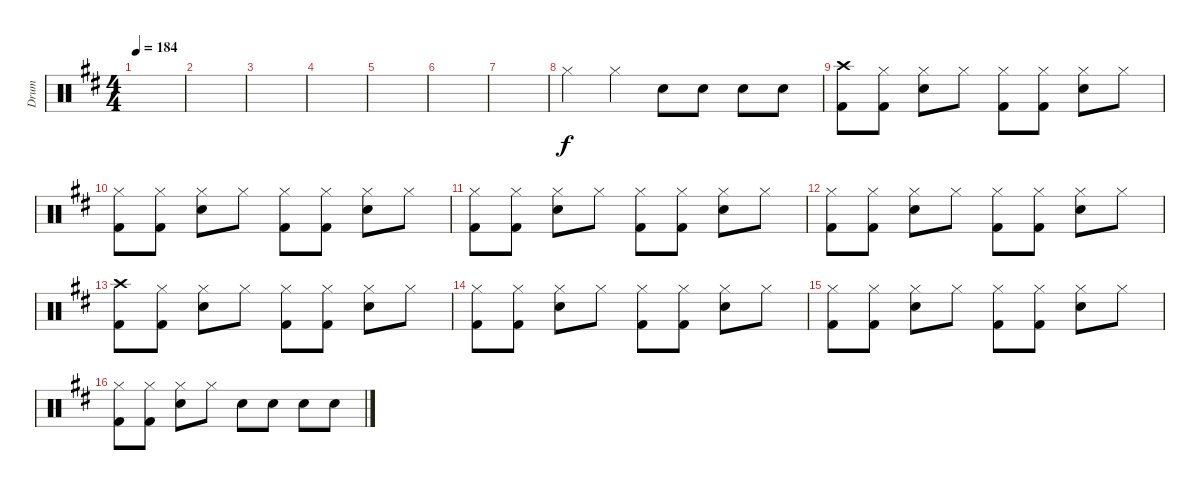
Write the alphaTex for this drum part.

\track ("Drum" "Drum") {instrument percussion}
\staff {score}
\articulation defaults
\ts (4 4)
\tempo 184
\clef neutral
\ks d
|
|
|
|
|
|
|
"Hi-Hat (closed)".4 "Hi-Hat (closed)".4 "Electric Snare (hit)".8 "Electric Snare (hit)".8 "Electric Snare (hit)".8 "Electric Snare (hit)".8 |
("Crash high (hit)" "Kick (hit) 2").8 ("Hi-Hat (closed)" "Kick (hit) 2").8 ("Hi-Hat (closed)" "Electric Snare (hit)").8 "Hi-Hat (closed)".8 ("Hi-Hat (closed)" "Kick (hit) 2").8 ("Hi-Hat (closed)" "Kick (hit) 2").8 ("Hi-Hat (closed)" "Electric Snare (hit)").8 "Hi-Hat (closed)".8 |
("Hi-Hat (closed)" "Kick (hit) 2").8 ("Hi-Hat (closed)" "Kick (hit) 2").8 ("Hi-Hat (closed)" "Electric Snare (hit)").8 "Hi-Hat (closed)".8 ("Hi-Hat (closed)" "Kick (hit) 2").8 ("Hi-Hat (closed)" "Kick (hit) 2").8 ("Hi-Hat (closed)" "Electric Snare (hit)").8 "Hi-Hat (closed)".8 |
("Hi-Hat (closed)" "Kick (hit) 2").8 ("Hi-Hat (closed)" "Kick (hit) 2").8 ("Hi-Hat (closed)" "Electric Snare (hit)").8 "Hi-Hat (closed)".8 ("Hi-Hat (closed)" "Kick (hit) 2").8 ("Hi-Hat (closed)" "Kick (hit) 2").8 ("Hi-Hat (closed)" "Electric Snare (hit)").8 "Hi-Hat (closed)".8 |
("Hi-Hat (closed)" "Kick (hit) 2").8 ("Hi-Hat (closed)" "Kick (hit) 2").8 ("Hi-Hat (closed)" "Electric Snare (hit)").8 "Hi-Hat (closed)".8 ("Hi-Hat (closed)" "Kick (hit) 2").8 ("Hi-Hat (closed)" "Kick (hit) 2").8 ("Hi-Hat (closed)" "Electric Snare (hit)").8 "Hi-Hat (closed)".8 |
("Crash high (hit)" "Kick (hit) 2").8 ("Hi-Hat (closed)" "Kick (hit) 2").8 ("Hi-Hat (closed)" "Electric Snare (hit)").8 "Hi-Hat (closed)".8 ("Hi-Hat (closed)" "Kick (hit) 2").8 ("Hi-Hat (closed)" "Kick (hit) 2").8 ("Hi-Hat (closed)" "Electric Snare (hit)").8 "Hi-Hat (closed)".8 |
("Hi-Hat (closed)" "Kick (hit) 2").8 ("Hi-Hat (closed)" "Kick (hit) 2").8 ("Hi-Hat (closed)" "Electric Snare (hit)").8 "Hi-Hat (closed)".8 ("Hi-Hat (closed)" "Kick (hit) 2").8 ("Hi-Hat (closed)" "Kick (hit) 2").8 ("Hi-Hat (closed)" "Electric Snare (hit)").8 "Hi-Hat (closed)".8 |
("Hi-Hat (closed)" "Kick (hit) 2").8 ("Hi-Hat (closed)" "Kick (hit) 2").8 ("Hi-Hat (closed)" "Electric Snare (hit)").8 "Hi-Hat (closed)".8 ("Hi-Hat (closed)" "Kick (hit) 2").8 ("Hi-Hat (closed)" "Kick (hit) 2").8 ("Hi-Hat (closed)" "Electric Snare (hit)").8 "Hi-Hat (closed)".8 |
("Hi-Hat (closed)" "Kick (hit) 2").8 ("Hi-Hat (closed)" "Kick (hit) 2").8 ("Hi-Hat (closed)" "Electric Snare (hit)").8 "Hi-Hat (closed)".8 "Electric Snare (hit)".8 "Electric Snare (hit)".8 "Electric Snare (hit)".8 "Electric Snare (hit)".8
